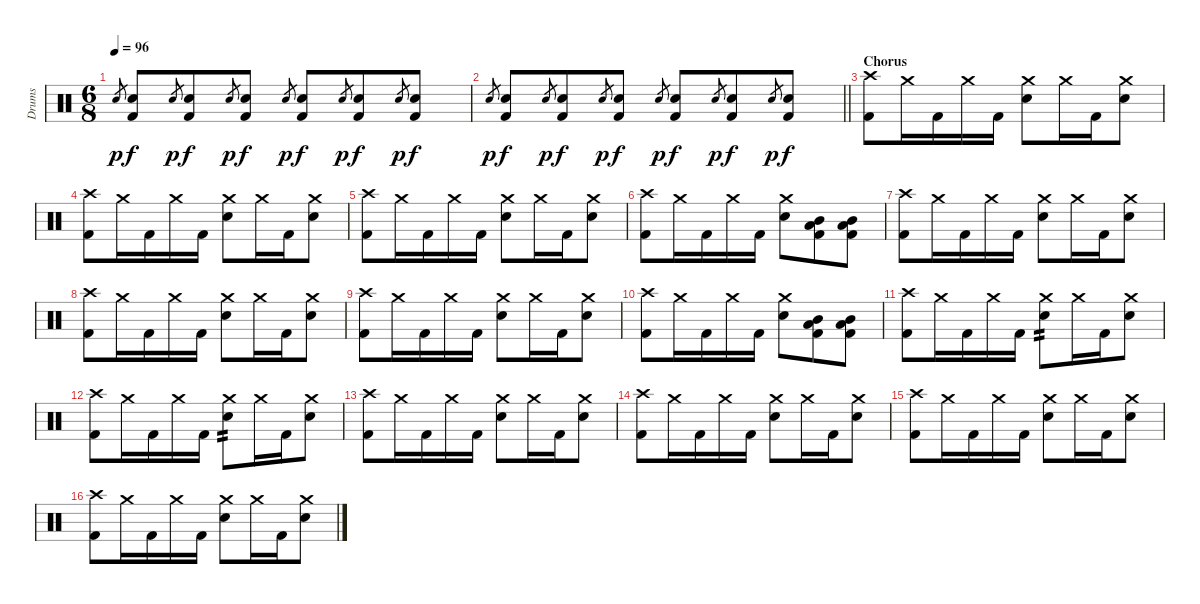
\track ("Drums" "Drums") {instrument percussion}
\staff {score}
\articulation defaults
\ts (6 8)
\tempo 96
\clef neutral
\ks c "Snare (hit) 2".8{gr dy p}
("Snare (hit) 2" "Kick (hit) 2").8{dy f} "Snare (hit) 2".8{gr dy p} ("Snare (hit) 2" "Kick (hit) 2").8{dy f} "Snare (hit) 2".8{gr dy p} ("Snare (hit) 2" "Kick (hit) 2").8{dy f} "Snare (hit) 2".8{gr dy p} ("Snare (hit) 2" "Kick (hit) 2").8{dy f} "Hand Clap (hit)".8{gr dy p} ("Snare (hit) 2" "Kick (hit) 2").8{dy f} "Snare (hit) 2".8{gr dy p} ("Snare (hit) 2" "Kick (hit) 2").8{dy f} |
\barLineRight lightlight "Snare (hit) 2".8{gr dy p}
("Snare (hit) 2" "Kick (hit) 2").8{dy f} "Snare (hit) 2".8{gr dy p} ("Snare (hit) 2" "Kick (hit) 2").8{dy f} "Snare (hit) 2".8{gr dy p} ("Snare (hit) 2" "Kick (hit) 2").8{dy f} "Snare (hit) 2".8{gr dy p} ("Snare (hit) 2" "Kick (hit) 2").8{dy f} "Hand Clap (hit)".8{gr dy p} ("Snare (hit) 2" "Kick (hit) 2").8{dy f} "Snare (hit) 2".8{gr dy p} ("Snare (hit) 2" "Kick (hit) 2").8{dy f} |
\section ("" "Chorus")
("Crash high (hit)" "Kick (hit) 2").8 "Crash medium (hit)".16 "Kick (hit) 2".16 "Crash medium (hit)".16 "Kick (hit) 2".16 ("Snare (hit) 2" "Crash medium (hit)").8 "Crash medium (hit)".16 "Kick (hit) 2".16 ("Crash medium (hit)" "Snare (hit) 2").8 |
("Crash high (hit)" "Kick (hit) 2").8 "Crash medium (hit)".16 "Kick (hit) 2".16 "Crash medium (hit)".16 "Kick (hit) 2".16 ("Snare (hit) 2" "Crash medium (hit)").8 "Crash medium (hit)".16 "Kick (hit) 2".16 ("Crash medium (hit)" "Snare (hit) 2").8 |
("Crash high (hit)" "Kick (hit) 2").8 "Crash medium (hit)".16 "Kick (hit) 2".16 "Crash medium (hit)".16 "Kick (hit) 2".16 ("Snare (hit) 2" "Crash medium (hit)").8 "Crash medium (hit)".16 "Kick (hit) 2".16 ("Crash medium (hit)" "Snare (hit) 2").8 |
("Crash high (hit)" "Kick (hit) 2").8 "Crash medium (hit)".16 "Kick (hit) 2".16 "Crash medium (hit)".16 "Kick (hit) 2".16 ("Snare (hit) 2" "Crash medium (hit)").8 ("Kick (hit) 2" "Low Tom (hit)" "Mid Tom (hit)").8 ("Kick (hit) 2" "Low Tom (hit)" "Mid Tom (hit)").8 |
("Crash high (hit)" "Kick (hit) 2").8 "Crash medium (hit)".16 "Kick (hit) 2".16 "Crash medium (hit)".16 "Kick (hit) 2".16 ("Snare (hit) 2" "Crash medium (hit)").8 "Crash medium (hit)".16 "Kick (hit) 2".16 ("Crash medium (hit)" "Snare (hit) 2").8 |
("Crash high (hit)" "Kick (hit) 2").8 "Crash medium (hit)".16 "Kick (hit) 2".16 "Crash medium (hit)".16 "Kick (hit) 2".16 ("Snare (hit) 2" "Crash medium (hit)").8 "Crash medium (hit)".16 "Kick (hit) 2".16 ("Crash medium (hit)" "Snare (hit) 2").8 |
("Crash high (hit)" "Kick (hit) 2").8 "Crash medium (hit)".16 "Kick (hit) 2".16 "Crash medium (hit)".16 "Kick (hit) 2".16 ("Snare (hit) 2" "Crash medium (hit)").8 "Crash medium (hit)".16 "Kick (hit) 2".16 ("Crash medium (hit)" "Snare (hit) 2").8 |
("Crash high (hit)" "Kick (hit) 2").8 "Crash medium (hit)".16 "Kick (hit) 2".16 "Crash medium (hit)".16 "Kick (hit) 2".16 ("Snare (hit) 2" "Crash medium (hit)").8 ("Kick (hit) 2" "Low Tom (hit)" "Mid Tom (hit)").8 ("Kick (hit) 2" "Low Tom (hit)" "Mid Tom (hit)").8 |
("Crash high (hit)" "Kick (hit) 2").8 "Crash medium (hit)".16 "Kick (hit) 2".16 "Crash medium (hit)".16 "Kick (hit) 2".16 ("Snare (hit) 2" "Crash medium (hit)").8{tp 2} "Crash medium (hit)".16 "Kick (hit) 2".16 ("Crash medium (hit)" "Snare (hit) 2").8 |
("Crash high (hit)" "Kick (hit) 2").8 "Crash medium (hit)".16 "Kick (hit) 2".16 "Crash medium (hit)".16 "Kick (hit) 2".16 ("Snare (hit) 2" "Crash medium (hit)").8{tp 2} "Crash medium (hit)".16 "Kick (hit) 2".16 ("Crash medium (hit)" "Snare (hit) 2").8 |
("Crash high (hit)" "Kick (hit) 2").8 "Crash medium (hit)".16 "Kick (hit) 2".16 "Crash medium (hit)".16 "Kick (hit) 2".16 ("Snare (hit) 2" "Crash medium (hit)").8 "Crash medium (hit)".16 "Kick (hit) 2".16 ("Crash medium (hit)" "Snare (hit) 2").8 |
("Crash high (hit)" "Kick (hit) 2").8 "Crash medium (hit)".16 "Kick (hit) 2".16 "Crash medium (hit)".16 "Kick (hit) 2".16 ("Snare (hit) 2" "Crash medium (hit)").8 "Crash medium (hit)".16 "Kick (hit) 2".16 ("Crash medium (hit)" "Snare (hit) 2").8 |
("Crash high (hit)" "Kick (hit) 2").8 "Crash medium (hit)".16 "Kick (hit) 2".16 "Crash medium (hit)".16 "Kick (hit) 2".16 ("Snare (hit) 2" "Crash medium (hit)").8 "Crash medium (hit)".16 "Kick (hit) 2".16 ("Crash medium (hit)" "Snare (hit) 2").8 |
("Crash high (hit)" "Kick (hit) 2").8 "Crash medium (hit)".16 "Kick (hit) 2".16 "Crash medium (hit)".16 "Kick (hit) 2".16 ("Snare (hit) 2" "Crash medium (hit)").8 "Crash medium (hit)".16 "Kick (hit) 2".16 ("Crash medium (hit)" "Snare (hit) 2").8
